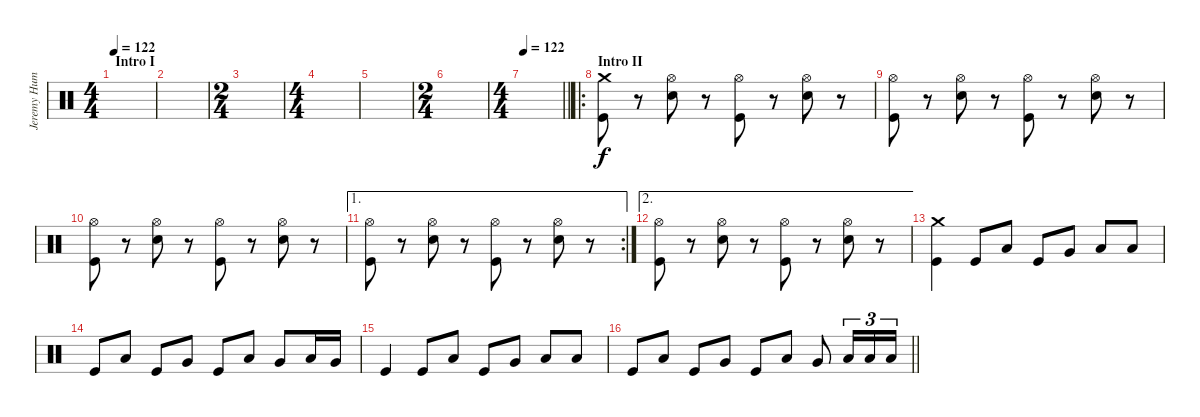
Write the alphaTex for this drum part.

\track ("Jeremy Hummel Drums]" "Jeremy Hum") {instrument percussion}
\staff {score}
\articulation defaults
\ts (4 4)
\section ("" "Intro I")
\tempo 122
\tempo 90
\tempo 122
\clef neutral
\ks c
|
|
\ts (2 4)
|
\ts (4 4)
|
|
\ts (2 4)
|
\ts (4 4)
\tempo 122
\barLineRight lightlight
|
\ro
\section ("" "Intro II")
("Crash medium (hit)" "Kick (hit)").8 r.8 ("Hi-Hat (open)" "Electric Snare (hit)").8 r.8 ("Hi-Hat (open)" "Kick (hit)").8 r.8 ("Hi-Hat (open)" "Electric Snare (hit)").8 r.8 |
("Hi-Hat (open)" "Kick (hit)").8 r.8 ("Hi-Hat (open)" "Electric Snare (hit)").8 r.8 ("Hi-Hat (open)" "Kick (hit)").8 r.8 ("Hi-Hat (open)" "Electric Snare (hit)").8 r.8 |
("Hi-Hat (open)" "Kick (hit)").8 r.8 ("Hi-Hat (open)" "Electric Snare (hit)").8 r.8 ("Hi-Hat (open)" "Kick (hit)").8 r.8 ("Hi-Hat (open)" "Electric Snare (hit)").8 r.8 |
\ae 1
\rc 2
("Hi-Hat (open)" "Kick (hit)").8 r.8 ("Hi-Hat (open)" "Electric Snare (hit)").8 r.8 ("Hi-Hat (open)" "Kick (hit)").8 r.8 ("Hi-Hat (open)" "Electric Snare (hit)").8 r.8 |
\ae 2
("Hi-Hat (open)" "Kick (hit)").8 r.8 ("Hi-Hat (open)" "Electric Snare (hit)").8 r.8 ("Hi-Hat (open)" "Kick (hit)").8 r.8 ("Hi-Hat (open)" "Electric Snare (hit)").8 r.8 |
("Crash medium (hit)" "Kick (hit)").4 "Kick (hit)".8 "Low Tom (hit)".8 "Kick (hit)".8 "Very Low Tom (hit)".8 "Low Floor Tom (hit)".8 "Low Tom (hit)".8 |
"Kick (hit)".8 "Low Tom (hit)".8 "Kick (hit)".8 "Very Low Tom (hit)".8 "Kick (hit)".8 "Low Floor Tom (hit)".8 "Very Low Tom (hit)".8 "Low Tom (hit)".16 "Very Low Tom (hit)".16 |
"Kick (hit)".4 "Kick (hit)".8 "Low Tom (hit)".8 "Kick (hit)".8 "Very Low Tom (hit)".8 "Low Floor Tom (hit)".8 "Low Tom (hit)".8 |
\barLineRight lightlight "Kick (hit)".8 "Low Tom (hit)".8 "Kick (hit)".8 "Very Low Tom (hit)".8 "Kick (hit)".8 "Low Floor Tom (hit)".8 "Very Low Tom (hit)".8 "Low Tom (hit)".16{tu (3 2)} "Low Tom (hit)".16{tu (3 2)} "Low Tom (hit)".16{tu (3 2)}
